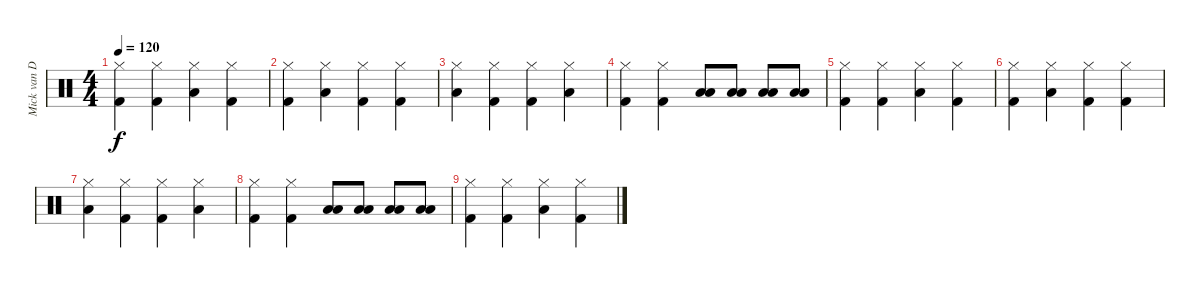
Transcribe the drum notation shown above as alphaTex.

\track ("Mick van Doorn" "Mick van D") {instrument percussion}
\staff {score}
\articulation defaults
\ts (4 4)
\tempo 120
\clef neutral
\ks c
("Kick (hit) 2" "Hi-Hat (closed)").4{dy f} ("Kick (hit) 2" "Hi-Hat (closed)").4 ("Low Floor Tom (hit)" "Hi-Hat (closed)").4 ("Kick (hit) 2" "Hi-Hat (closed)").4 |
("Kick (hit) 2" "Hi-Hat (closed)").4 ("Low Floor Tom (hit)" "Hi-Hat (closed)").4 ("Kick (hit) 2" "Hi-Hat (closed)").4 ("Kick (hit) 2" "Hi-Hat (closed)").4 |
("Low Floor Tom (hit)" "Hi-Hat (closed)").4 ("Kick (hit) 2" "Hi-Hat (closed)").4 ("Kick (hit) 2" "Hi-Hat (closed)").4 ("Low Floor Tom (hit)" "Hi-Hat (closed)").4 |
("Kick (hit) 2" "Hi-Hat (closed)").4 ("Kick (hit) 2" "Hi-Hat (closed)").4 ("Low Floor Tom (hit)" "Low Floor Tom (hit)").8 ("Low Floor Tom (hit)" "Low Floor Tom (hit)").8 ("Low Floor Tom (hit)" "Low Floor Tom (hit)").8 ("Low Floor Tom (hit)" "Low Floor Tom (hit)").8 |
("Kick (hit) 2" "Hi-Hat (closed)").4 ("Kick (hit) 2" "Hi-Hat (closed)").4 ("Low Floor Tom (hit)" "Hi-Hat (closed)").4 ("Kick (hit) 2" "Hi-Hat (closed)").4 |
("Kick (hit) 2" "Hi-Hat (closed)").4 ("Low Floor Tom (hit)" "Hi-Hat (closed)").4 ("Kick (hit) 2" "Hi-Hat (closed)").4 ("Kick (hit) 2" "Hi-Hat (closed)").4 |
("Low Floor Tom (hit)" "Hi-Hat (closed)").4 ("Kick (hit) 2" "Hi-Hat (closed)").4 ("Kick (hit) 2" "Hi-Hat (closed)").4 ("Low Floor Tom (hit)" "Hi-Hat (closed)").4 |
("Kick (hit) 2" "Hi-Hat (closed)").4 ("Kick (hit) 2" "Hi-Hat (closed)").4 ("Low Floor Tom (hit)" "Low Floor Tom (hit)").8 ("Low Floor Tom (hit)" "Low Floor Tom (hit)").8 ("Low Floor Tom (hit)" "Low Floor Tom (hit)").8 ("Low Floor Tom (hit)" "Low Floor Tom (hit)").8 |
("Kick (hit) 2" "Hi-Hat (closed)").4 ("Kick (hit) 2" "Hi-Hat (closed)").4 ("Low Floor Tom (hit)" "Hi-Hat (closed)").4 ("Kick (hit) 2" "Hi-Hat (closed)").4
